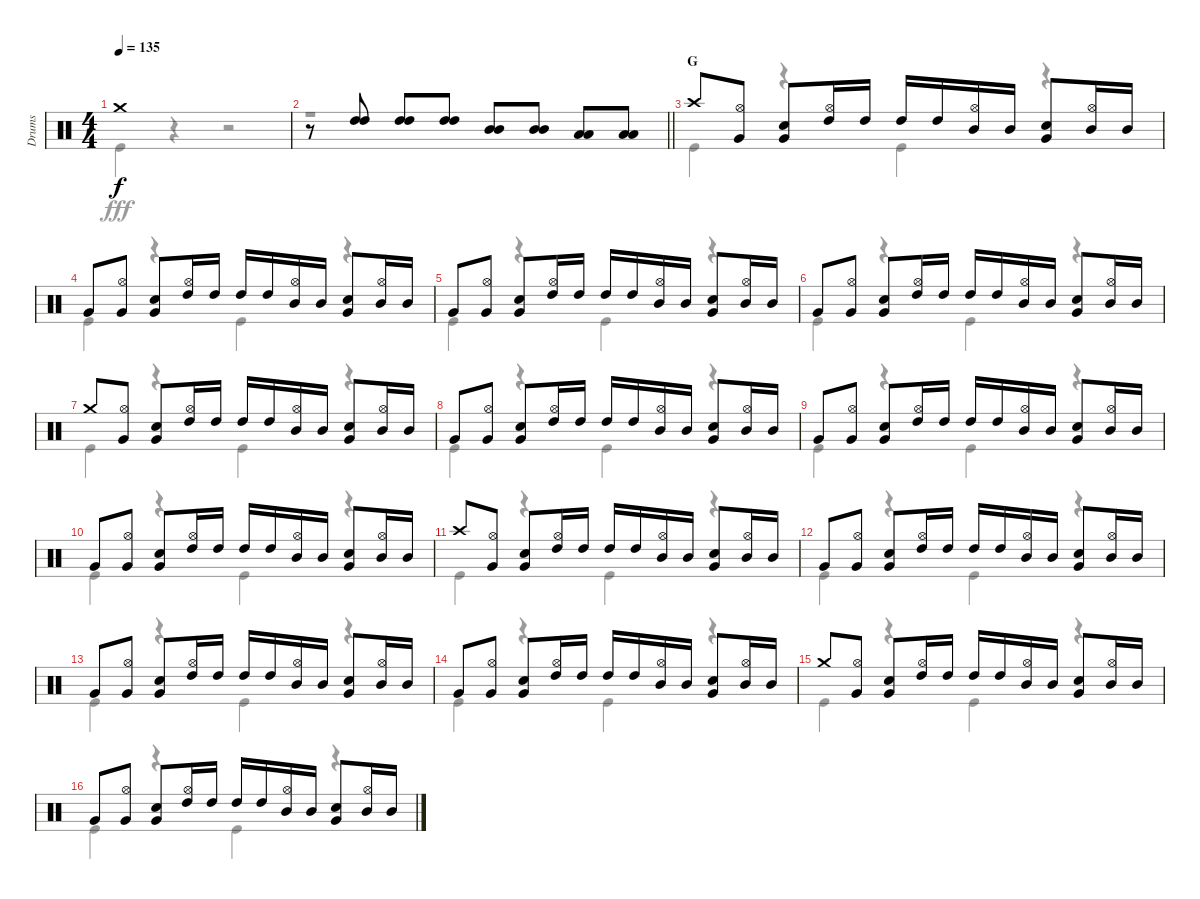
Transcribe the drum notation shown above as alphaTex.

\track ("Drums" "Drums") {instrument percussion}
\staff {score}
\articulation defaults
\voice
\ts (4 4)
\tempo 135
\clef neutral
\ks c "Crash medium (hit)".1{dy f}
|
\barLineRight lightlight
r.8 ("High Tom (hit)" "High Tom (hit)").8 ("High Tom (hit)" "High Tom (hit)").8 ("High Tom (hit)" "High Tom (hit)").8 ("Mid Tom (hit)" "Mid Tom (hit)").8 ("Mid Tom (hit)" "Mid Tom (hit)").8 ("Low Tom (hit)" "Low Tom (hit)").8 ("Low Tom (hit)" "Low Tom (hit)").8 |
\section ("" "G")
"Crash high (hit)".8 ("Hi-Hat (open)" "Very Low Tom (hit)").8 ("Snare (hit) 2" "Very Low Tom (hit)").8 ("Hi-Hat (open)" "High Tom (hit)").16 "High Tom (hit)".16 "High Tom (hit)".16 "High Tom (hit)".16 ("Hi-Hat (open)" "Mid Tom (hit)").16 "Mid Tom (hit)".16 ("Snare (hit) 2" "Very Low Tom (hit)").8 ("Hi-Hat (open)" "Mid Tom (hit)").16 "Mid Tom (hit)".16 |
"Very Low Tom (hit)".8 ("Hi-Hat (open)" "Very Low Tom (hit)").8 ("Snare (hit) 2" "Very Low Tom (hit)").8 ("Hi-Hat (open)" "High Tom (hit)").16 "High Tom (hit)".16 "High Tom (hit)".16 "High Tom (hit)".16 ("Hi-Hat (open)" "Mid Tom (hit)").16 "Mid Tom (hit)".16 ("Snare (hit) 2" "Very Low Tom (hit)").8 ("Hi-Hat (open)" "Mid Tom (hit)").16 "Mid Tom (hit)".16 |
"Very Low Tom (hit)".8 ("Hi-Hat (open)" "Very Low Tom (hit)").8 ("Snare (hit) 2" "Very Low Tom (hit)").8 ("Hi-Hat (open)" "High Tom (hit)").16 "High Tom (hit)".16 "High Tom (hit)".16 "High Tom (hit)".16 ("Hi-Hat (open)" "Mid Tom (hit)").16 "Mid Tom (hit)".16 ("Snare (hit) 2" "Very Low Tom (hit)").8 ("Hi-Hat (open)" "Mid Tom (hit)").16 "Mid Tom (hit)".16 |
"Very Low Tom (hit)".8 ("Hi-Hat (open)" "Very Low Tom (hit)").8 ("Snare (hit) 2" "Very Low Tom (hit)").8 ("Hi-Hat (open)" "High Tom (hit)").16 "High Tom (hit)".16 "High Tom (hit)".16 "High Tom (hit)".16 ("Hi-Hat (open)" "Mid Tom (hit)").16 "Mid Tom (hit)".16 ("Snare (hit) 2" "Very Low Tom (hit)").8 ("Hi-Hat (open)" "Mid Tom (hit)").16 "Mid Tom (hit)".16 |
"Crash medium (hit)".8 ("Hi-Hat (open)" "Very Low Tom (hit)").8 ("Snare (hit) 2" "Very Low Tom (hit)").8 ("Hi-Hat (open)" "High Tom (hit)").16 "High Tom (hit)".16 "High Tom (hit)".16 "High Tom (hit)".16 ("Hi-Hat (open)" "Mid Tom (hit)").16 "Mid Tom (hit)".16 ("Snare (hit) 2" "Very Low Tom (hit)").8 ("Hi-Hat (open)" "Mid Tom (hit)").16 "Mid Tom (hit)".16 |
"Very Low Tom (hit)".8 ("Hi-Hat (open)" "Very Low Tom (hit)").8 ("Snare (hit) 2" "Very Low Tom (hit)").8 ("Hi-Hat (open)" "High Tom (hit)").16 "High Tom (hit)".16 "High Tom (hit)".16 "High Tom (hit)".16 ("Hi-Hat (open)" "Mid Tom (hit)").16 "Mid Tom (hit)".16 ("Snare (hit) 2" "Very Low Tom (hit)").8 ("Hi-Hat (open)" "Mid Tom (hit)").16 "Mid Tom (hit)".16 |
"Very Low Tom (hit)".8 ("Hi-Hat (open)" "Very Low Tom (hit)").8 ("Snare (hit) 2" "Very Low Tom (hit)").8 ("Hi-Hat (open)" "High Tom (hit)").16 "High Tom (hit)".16 "High Tom (hit)".16 "High Tom (hit)".16 ("Hi-Hat (open)" "Mid Tom (hit)").16 "Mid Tom (hit)".16 ("Snare (hit) 2" "Very Low Tom (hit)").8 ("Hi-Hat (open)" "Mid Tom (hit)").16 "Mid Tom (hit)".16 |
"Very Low Tom (hit)".8 ("Hi-Hat (open)" "Very Low Tom (hit)").8 ("Snare (hit) 2" "Very Low Tom (hit)").8 ("Hi-Hat (open)" "High Tom (hit)").16 "High Tom (hit)".16 "High Tom (hit)".16 "High Tom (hit)".16 ("Hi-Hat (open)" "Mid Tom (hit)").16 "Mid Tom (hit)".16 ("Snare (hit) 2" "Very Low Tom (hit)").8 ("Hi-Hat (open)" "Mid Tom (hit)").16 "Mid Tom (hit)".16 |
"Crash high (hit)".8 ("Hi-Hat (open)" "Very Low Tom (hit)").8 ("Snare (hit) 2" "Very Low Tom (hit)").8 ("Hi-Hat (open)" "High Tom (hit)").16 "High Tom (hit)".16 "High Tom (hit)".16 "High Tom (hit)".16 ("Hi-Hat (open)" "Mid Tom (hit)").16 "Mid Tom (hit)".16 ("Snare (hit) 2" "Very Low Tom (hit)").8 ("Hi-Hat (open)" "Mid Tom (hit)").16 "Mid Tom (hit)".16 |
"Very Low Tom (hit)".8 ("Hi-Hat (open)" "Very Low Tom (hit)").8 ("Snare (hit) 2" "Very Low Tom (hit)").8 ("Hi-Hat (open)" "High Tom (hit)").16 "High Tom (hit)".16 "High Tom (hit)".16 "High Tom (hit)".16 ("Hi-Hat (open)" "Mid Tom (hit)").16 "Mid Tom (hit)".16 ("Snare (hit) 2" "Very Low Tom (hit)").8 ("Hi-Hat (open)" "Mid Tom (hit)").16 "Mid Tom (hit)".16 |
"Very Low Tom (hit)".8 ("Hi-Hat (open)" "Very Low Tom (hit)").8 ("Snare (hit) 2" "Very Low Tom (hit)").8 ("Hi-Hat (open)" "High Tom (hit)").16 "High Tom (hit)".16 "High Tom (hit)".16 "High Tom (hit)".16 ("Hi-Hat (open)" "Mid Tom (hit)").16 "Mid Tom (hit)".16 ("Snare (hit) 2" "Very Low Tom (hit)").8 ("Hi-Hat (open)" "Mid Tom (hit)").16 "Mid Tom (hit)".16 |
"Very Low Tom (hit)".8 ("Hi-Hat (open)" "Very Low Tom (hit)").8 ("Snare (hit) 2" "Very Low Tom (hit)").8 ("Hi-Hat (open)" "High Tom (hit)").16 "High Tom (hit)".16 "High Tom (hit)".16 "High Tom (hit)".16 ("Hi-Hat (open)" "Mid Tom (hit)").16 "Mid Tom (hit)".16 ("Snare (hit) 2" "Very Low Tom (hit)").8 ("Hi-Hat (open)" "Mid Tom (hit)").16 "Mid Tom (hit)".16 |
"Crash medium (hit)".8 ("Hi-Hat (open)" "Very Low Tom (hit)").8 ("Snare (hit) 2" "Very Low Tom (hit)").8 ("Hi-Hat (open)" "High Tom (hit)").16 "High Tom (hit)".16 "High Tom (hit)".16 "High Tom (hit)".16 ("Hi-Hat (open)" "Mid Tom (hit)").16 "Mid Tom (hit)".16 ("Snare (hit) 2" "Very Low Tom (hit)").8 ("Hi-Hat (open)" "Mid Tom (hit)").16 "Mid Tom (hit)".16 |
"Very Low Tom (hit)".8 ("Hi-Hat (open)" "Very Low Tom (hit)").8 ("Snare (hit) 2" "Very Low Tom (hit)").8 ("Hi-Hat (open)" "High Tom (hit)").16 "High Tom (hit)".16 "High Tom (hit)".16 "High Tom (hit)".16 ("Hi-Hat (open)" "Mid Tom (hit)").16 "Mid Tom (hit)".16 ("Snare (hit) 2" "Very Low Tom (hit)").8 ("Hi-Hat (open)" "Mid Tom (hit)").16 "Mid Tom (hit)".16
\voice
\clef neutral
\ottava regular
\simile none
\ks c "Kick (hit)".4{dy fff}
r.4 r.2 |
\barLineRight lightlight
r.1 |
"Kick (hit)".4 r.4 "Kick (hit)".4 r.4 |
"Kick (hit)".4 r.4 "Kick (hit)".4 r.4 |
"Kick (hit)".4 r.4 "Kick (hit)".4 r.4 |
"Kick (hit)".4 r.4 "Kick (hit)".4 r.4 |
"Kick (hit)".4 r.4 "Kick (hit)".4 r.4 |
"Kick (hit)".4 r.4 "Kick (hit)".4 r.4 |
"Kick (hit)".4 r.4 "Kick (hit)".4 r.4 |
"Kick (hit)".4 r.4 "Kick (hit)".4 r.4 |
"Kick (hit)".4 r.4 "Kick (hit)".4 r.4 |
"Kick (hit)".4 r.4 "Kick (hit)".4 r.4 |
"Kick (hit)".4 r.4 "Kick (hit)".4 r.4 |
"Kick (hit)".4 r.4 "Kick (hit)".4 r.4 |
"Kick (hit)".4 r.4 "Kick (hit)".4 r.4 |
"Kick (hit)".4 r.4 "Kick (hit)".4 r.4
